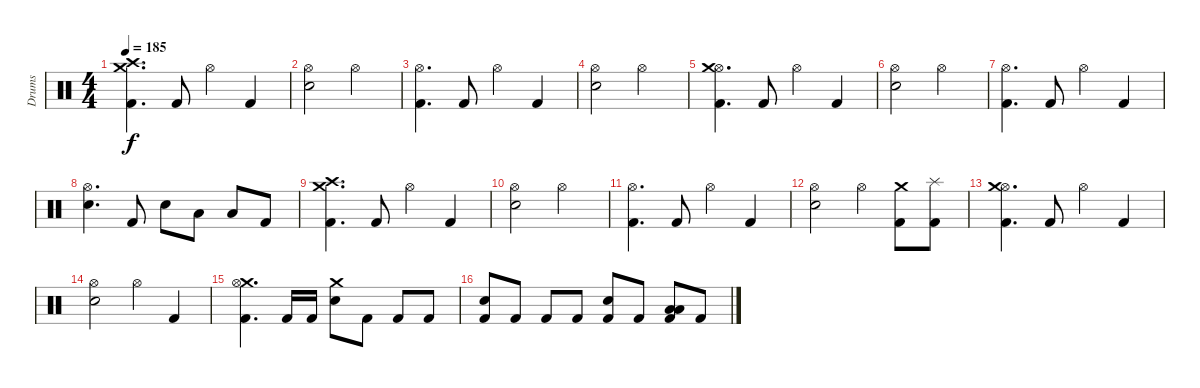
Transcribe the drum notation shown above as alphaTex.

\track ("Drums" "Drums") {instrument percussion}
\staff {score}
\articulation defaults
\ts (4 4)
\tempo 185
\clef neutral
\ks c
("Crash medium (hit)" "Crash high (hit)" "Kick (hit) 2").4{d dy f} "Kick (hit) 2".8 "Hi-Hat (open)".4 "Kick (hit) 2".4 |
("Hi-Hat (open)" "Electric Snare (hit)").2 "Hi-Hat (open)".2 |
("Hi-Hat (open)" "Kick (hit) 2").4{d} "Kick (hit) 2".8 "Hi-Hat (open)".4 "Kick (hit) 2".4 |
("Hi-Hat (open)" "Electric Snare (hit)").2 "Hi-Hat (open)".2 |
("Hi-Hat (open)" "Crash medium (hit)" "Kick (hit) 2").4{d} "Kick (hit) 2".8 "Hi-Hat (open)".4 "Kick (hit) 2".4 |
("Hi-Hat (open)" "Electric Snare (hit)").2 "Hi-Hat (open)".2 |
("Hi-Hat (open)" "Kick (hit) 2").4{d} "Kick (hit) 2".8 "Hi-Hat (open)".4 "Kick (hit) 2".4 |
("Hi-Hat (open)" "Electric Snare (hit)").4{d} "Kick (hit) 2".8 "Electric Snare (hit)".8 "Low Tom (hit)".8 "Low Floor Tom (hit)".8 "Kick (hit) 2".8 |
("Crash medium (hit)" "Crash high (hit)" "Kick (hit) 2").4{d} "Kick (hit) 2".8 "Hi-Hat (open)".4 "Kick (hit) 2".4 |
("Hi-Hat (open)" "Electric Snare (hit)").2 "Hi-Hat (open)".2 |
("Hi-Hat (open)" "Kick (hit) 2").4{d} "Kick (hit) 2".8 "Hi-Hat (open)".4 "Kick (hit) 2".4 |
("Hi-Hat (open)" "Electric Snare (hit)").2 "Hi-Hat (open)".4 ("Crash medium (hit)" "Kick (hit) 2").8 ("Splash (hit)" "Kick (hit) 2").8 |
("Hi-Hat (open)" "Crash medium (hit)" "Kick (hit) 2").4{d} "Kick (hit) 2".8 "Hi-Hat (open)".4 "Kick (hit) 2".4 |
("Hi-Hat (open)" "Electric Snare (hit)").2 "Hi-Hat (open)".4 "Kick (hit) 2".4 |
("Crash medium (hit)" "Hi-Hat (open)" "Kick (hit) 2").4{d} "Kick (hit) 2".16 "Kick (hit) 2".16 ("Crash medium (hit)" "Electric Snare (hit)").8 "Kick (hit) 2".8 "Kick (hit) 2".8 "Kick (hit) 2".8 |
("Electric Snare (hit)" "Kick (hit) 2").8 "Kick (hit) 2".8 "Kick (hit) 2".8 "Kick (hit) 2".8 ("Electric Snare (hit)" "Kick (hit) 2").8 "Kick (hit) 2".8 ("Low Tom (hit)" "Low Floor Tom (hit)" "Kick (hit) 2").8 "Kick (hit) 2".8
